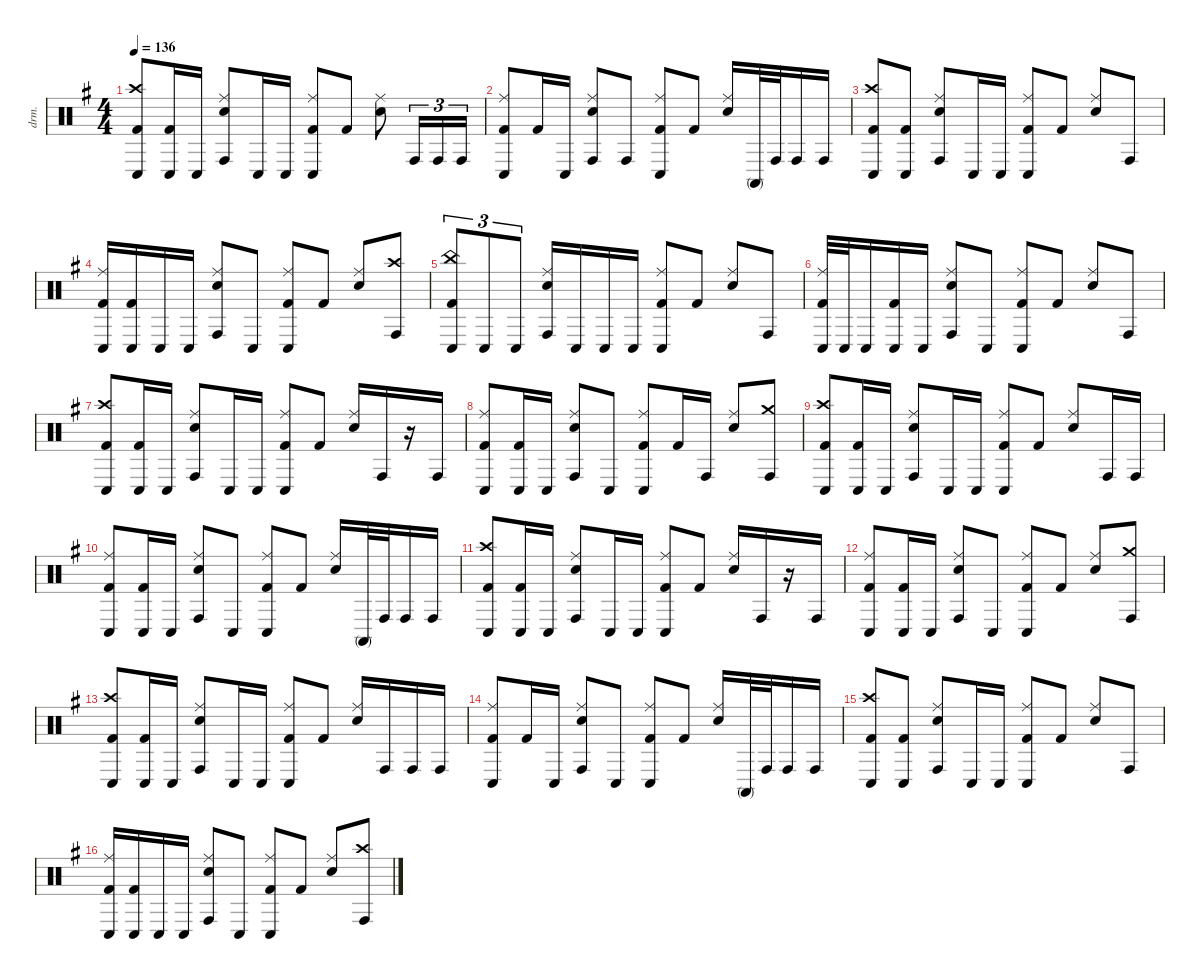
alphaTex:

\defaultSystemsLayout 4
\hideDynamics
\bracketExtendMode nobrackets
\otherSystemsTrackNameOrientation horizontal
\track ("Batterie" "drm.") {instrument percussion}
\staff {score}
\articulation defaults
\ts (4 4)
\tempo 136
\clef neutral
\ks g
("Crash high (hit)"{acc forcenatural} "Conga low (hit)"{acc forcenatural} "Kick (hit) 2"{acc forcenatural}).8{dy f beam Up} ("Conga low (hit)"{acc forcenatural} "Kick (hit) 2"{acc forcenatural}).16{beam Up} "Conga low (hit)"{acc forcenatural}.16{beam Up} ("Ride (middle)"{acc forcenatural} "Conga high (hit)"{acc forcenatural} "Snare (hit) 2"{acc forcenatural}).8{beam Up} "Conga low (hit)"{acc forcenatural}.16{beam Up} "Conga low (hit)"{acc forcenatural}.16{beam Up} ("Ride (middle)"{acc forcenatural} "Conga low (hit)"{acc forcenatural} "Kick (hit) 2"{acc forcenatural}).8{beam Up} "Kick (hit) 2"{acc forcenatural}.8{beam Up} ("Ride (middle)"{acc forcenatural} "Snare (hit) 2"{acc forcenatural}).8{beam Down} "Conga high (hit)"{acc forcenatural}.16{tu (3 2) beam Up} "Conga high (hit)"{acc forcenatural}.16{tu (3 2) beam Up} "Conga high (hit)"{acc forcenatural}.16{tu (3 2) beam Up} |
("Ride (middle)"{acc forcenatural} "Conga low (hit)"{acc forcenatural} "Kick (hit) 2"{acc forcenatural}).8{beam Up} "Kick (hit) 2"{acc forcenatural}.16{beam Up} "Conga low (hit)"{acc forcenatural}.16{beam Up} ("Ride (middle)"{acc forcenatural} "Conga high (hit)"{acc forcenatural} "Snare (hit) 2"{acc forcenatural}).8{beam Up} "Conga high (hit)"{acc forcenatural}.8{beam Up} ("Ride (middle)"{acc forcenatural} "Conga low (hit)"{acc forcenatural} "Kick (hit) 2"{acc forcenatural}).8{beam Up} "Kick (hit) 2"{acc forcenatural}.8{beam Up} ("Ride (middle)"{acc forcenatural} "Snare (hit) 2"{acc forcenatural}).16{beam Up} "Conga high (mute)"{acc forcenatural}.32{beam Up} "Conga high (hit)"{acc forcenatural}.32{beam Up} "Conga high (hit)"{acc forcenatural}.16{beam Up} "Conga high (hit)"{acc forcenatural}.16{beam Up} |
("Crash high (hit)"{acc forcenatural} "Conga low (hit)"{acc forcenatural} "Kick (hit) 2"{acc forcenatural}).8{beam Up} ("Conga low (hit)"{acc forcenatural} "Kick (hit) 2"{acc forcenatural}).8{beam Up} ("Ride (middle)"{acc forcenatural} "Conga high (hit)"{acc forcenatural} "Snare (hit) 2"{acc forcenatural}).8{beam Up} "Conga low (hit)"{acc forcenatural}.16{beam Up} "Conga low (hit)"{acc forcenatural}.16{beam Up} ("Ride (middle)"{acc forcenatural} "Conga low (hit)"{acc forcenatural} "Kick (hit) 2"{acc forcenatural}).8{beam Up} "Kick (hit) 2"{acc forcenatural}.8{beam Up} ("Ride (middle)"{acc forcenatural} "Snare (hit) 2"{acc forcenatural}).8{beam Up} "Conga high (hit)"{acc forcenatural}.8{beam Up} |
("Ride (middle)"{acc forcenatural} "Conga low (hit)"{acc forcenatural} "Kick (hit) 2"{acc forcenatural}).16{beam Up} ("Conga low (hit)"{acc forcenatural} "Kick (hit) 2"{acc forcenatural}).16{beam Up} "Conga low (hit)"{acc forcenatural}.16{beam Up} "Conga low (hit)"{acc forcenatural}.16{beam Up} ("Ride (middle)"{acc forcenatural} "Conga high (hit)"{acc forcenatural} "Snare (hit) 2"{acc forcenatural}).8{beam Up} "Conga low (hit)"{acc forcenatural}.8{beam Up} ("Ride (middle)"{acc forcenatural} "Conga low (hit)"{acc forcenatural} "Kick (hit) 2"{acc forcenatural}).8{beam Up} "Kick (hit) 2"{acc forcenatural}.8{beam Up} ("Ride (middle)"{acc forcenatural} "Snare (hit) 2"{acc forcenatural}).8{beam Up} ("Crash high (hit)"{acc forcenatural} "Conga high (hit)"{acc forcenatural}).8{beam Up} |
("China (hit)"{acc forcenatural} "Conga low (hit)"{acc forcenatural} "Kick (hit) 2"{acc forcenatural}).8{tu (3 2) beam Up} "Conga low (hit)"{acc forcenatural}.8{tu (3 2) beam Up} "Conga low (hit)"{acc forcenatural}.8{tu (3 2) beam Up} ("Ride (middle)"{acc forcenatural} "Conga high (hit)"{acc forcenatural} "Snare (hit) 2"{acc forcenatural}).16{beam Up} "Conga low (hit)"{acc forcenatural}.16{beam Up} "Conga low (hit)"{acc forcenatural}.16{beam Up} "Conga low (hit)"{acc forcenatural}.16{beam Up} ("Ride (middle)"{acc forcenatural} "Conga low (hit)"{acc forcenatural} "Kick (hit) 2"{acc forcenatural}).8{beam Up} "Kick (hit) 2"{acc forcenatural}.8{beam Up} ("Ride (middle)"{acc forcenatural} "Snare (hit) 2"{acc forcenatural}).8{beam Up} "Conga high (hit)"{acc forcenatural}.8{beam Up} |
("Ride (middle)"{acc forcenatural} "Conga low (hit)"{acc forcenatural} "Kick (hit) 2"{acc forcenatural}).32{beam Up} "Conga low (hit)"{acc forcenatural}.32{beam Up} "Conga low (hit)"{acc forcenatural}.16{beam Up} ("Conga low (hit)"{acc forcenatural} "Kick (hit) 2"{acc forcenatural}).16{beam Up} "Conga low (hit)"{acc forcenatural}.16{beam Up} ("Ride (middle)"{acc forcenatural} "Conga high (hit)"{acc forcenatural} "Snare (hit) 2"{acc forcenatural}).8{beam Up} "Conga low (hit)"{acc forcenatural}.8{beam Up} ("Ride (middle)"{acc forcenatural} "Conga low (hit)"{acc forcenatural} "Kick (hit) 2"{acc forcenatural}).8{beam Up} "Kick (hit) 2"{acc forcenatural}.8{beam Up} ("Ride (middle)"{acc forcenatural} "Snare (hit) 2"{acc forcenatural}).8{beam Up} "Conga high (hit)"{acc forcenatural}.8{beam Up} |
("Crash high (hit)"{acc forcenatural} "Conga low (hit)"{acc forcenatural} "Kick (hit) 2"{acc forcenatural}).8{beam Up} ("Conga low (hit)"{acc forcenatural} "Kick (hit) 2"{acc forcenatural}).16{beam Up} "Conga low (hit)"{acc forcenatural}.16{beam Up} ("Ride (middle)"{acc forcenatural} "Conga high (hit)"{acc forcenatural} "Snare (hit) 2"{acc forcenatural}).8{beam Up} "Conga low (hit)"{acc forcenatural}.16{beam Up} "Conga low (hit)"{acc forcenatural}.16{beam Up} ("Ride (middle)"{acc forcenatural} "Conga low (hit)"{acc forcenatural} "Kick (hit) 2"{acc forcenatural}).8{beam Up} "Kick (hit) 2"{acc forcenatural}.8{beam Up} ("Ride (middle)"{acc forcenatural} "Snare (hit) 2"{acc forcenatural}).16{beam Up} "Conga high (hit)"{acc forcenatural}.16{beam Up} r.16{beam Up} "Conga high (hit)"{acc forcenatural}.16{beam Up} |
("Ride (middle)"{acc forcenatural} "Conga low (hit)"{acc forcenatural} "Kick (hit) 2"{acc forcenatural}).8{beam Up} ("Conga low (hit)"{acc forcenatural} "Kick (hit) 2"{acc forcenatural}).16{beam Up} "Conga low (hit)"{acc forcenatural}.16{beam Up} ("Ride (middle)"{acc forcenatural} "Conga high (hit)"{acc forcenatural} "Snare (hit) 2"{acc forcenatural}).8{beam Up} "Conga low (hit)"{acc forcenatural}.8{beam Up} ("Ride (middle)"{acc forcenatural} "Conga low (hit)"{acc forcenatural} "Kick (hit) 2"{acc forcenatural}).8{beam Up} "Kick (hit) 2"{acc forcenatural}.16{beam Up} "Conga high (hit)"{acc forcenatural}.16{beam Up} ("Ride (middle)"{acc forcenatural} "Snare (hit) 2"{acc forcenatural}).8{beam Up} ("Crash medium (hit)"{acc forcenatural} "Conga high (hit)"{acc forcenatural}).8{beam Up} |
("Crash high (hit)"{acc forcenatural} "Conga low (hit)"{acc forcenatural} "Kick (hit) 2"{acc forcenatural}).8{beam Up} ("Conga low (hit)"{acc forcenatural} "Kick (hit) 2"{acc forcenatural}).16{beam Up} "Conga low (hit)"{acc forcenatural}.16{beam Up} ("Ride (middle)"{acc forcenatural} "Conga high (hit)"{acc forcenatural} "Snare (hit) 2"{acc forcenatural}).8{beam Up} "Conga low (hit)"{acc forcenatural}.16{beam Up} "Conga low (hit)"{acc forcenatural}.16{beam Up} ("Ride (middle)"{acc forcenatural} "Conga low (hit)"{acc forcenatural} "Kick (hit) 2"{acc forcenatural}).8{beam Up} "Kick (hit) 2"{acc forcenatural}.8{beam Up} ("Ride (middle)"{acc forcenatural} "Snare (hit) 2"{acc forcenatural}).8{beam Up} "Conga high (hit)"{acc forcenatural}.16{beam Up} "Conga high (hit)"{acc forcenatural}.16{beam Up} |
("Ride (middle)"{acc forcenatural} "Conga low (hit)"{acc forcenatural} "Kick (hit) 2"{acc forcenatural}).8{beam Up} ("Conga low (hit)"{acc forcenatural} "Kick (hit) 2"{acc forcenatural}).16{beam Up} "Conga low (hit)"{acc forcenatural}.16{beam Up} ("Ride (middle)"{acc forcenatural} "Conga high (hit)"{acc forcenatural} "Snare (hit) 2"{acc forcenatural}).8{beam Up} "Conga low (hit)"{acc forcenatural}.8{beam Up} ("Ride (middle)"{acc forcenatural} "Conga low (hit)"{acc forcenatural} "Kick (hit) 2"{acc forcenatural}).8{beam Up} "Kick (hit) 2"{acc forcenatural}.8{beam Up} ("Ride (middle)"{acc forcenatural} "Snare (hit) 2"{acc forcenatural}).16{beam Up} "Conga high (mute)"{acc forcenatural}.32{beam Up} "Conga high (hit)"{acc forcenatural}.32{beam Up} "Conga high (hit)"{acc forcenatural}.16{beam Up} "Conga high (hit)"{acc forcenatural}.16{beam Up} |
("Crash high (hit)"{acc forcenatural} "Conga low (hit)"{acc forcenatural} "Kick (hit) 2"{acc forcenatural}).8{beam Up} ("Conga low (hit)"{acc forcenatural} "Kick (hit) 2"{acc forcenatural}).16{beam Up} "Conga low (hit)"{acc forcenatural}.16{beam Up} ("Ride (middle)"{acc forcenatural} "Conga high (hit)"{acc forcenatural} "Snare (hit) 2"{acc forcenatural}).8{beam Up} "Conga low (hit)"{acc forcenatural}.16{beam Up} "Conga low (hit)"{acc forcenatural}.16{beam Up} ("Ride (middle)"{acc forcenatural} "Conga low (hit)"{acc forcenatural} "Kick (hit) 2"{acc forcenatural}).8{beam Up} "Kick (hit) 2"{acc forcenatural}.8{beam Up} ("Ride (middle)"{acc forcenatural} "Snare (hit) 2"{acc forcenatural}).16{beam Up} "Conga high (hit)"{acc forcenatural}.16{beam Up} r.16{beam Up} "Conga high (hit)"{acc forcenatural}.16{beam Up} |
("Ride (middle)"{acc forcenatural} "Conga low (hit)"{acc forcenatural} "Kick (hit) 2"{acc forcenatural}).8{beam Up} ("Conga low (hit)"{acc forcenatural} "Kick (hit) 2"{acc forcenatural}).16{beam Up} "Conga low (hit)"{acc forcenatural}.16{beam Up} ("Ride (middle)"{acc forcenatural} "Conga high (hit)"{acc forcenatural} "Snare (hit) 2"{acc forcenatural}).8{beam Up} "Conga low (hit)"{acc forcenatural}.8{beam Up} ("Ride (middle)"{acc forcenatural} "Conga low (hit)"{acc forcenatural} "Kick (hit) 2"{acc forcenatural}).8{beam Up} "Kick (hit) 2"{acc forcenatural}.8{beam Up} ("Ride (middle)"{acc forcenatural} "Snare (hit) 2"{acc forcenatural}).8{beam Up} ("Crash medium (hit)"{acc forcenatural} "Conga high (hit)"{acc forcenatural}).8{beam Up} |
("Crash high (hit)"{acc forcenatural} "Conga low (hit)"{acc forcenatural} "Kick (hit) 2"{acc forcenatural}).8{beam Up} ("Conga low (hit)"{acc forcenatural} "Kick (hit) 2"{acc forcenatural}).16{beam Up} "Conga low (hit)"{acc forcenatural}.16{beam Up} ("Ride (middle)"{acc forcenatural} "Conga high (hit)"{acc forcenatural} "Snare (hit) 2"{acc forcenatural}).8{beam Up} "Conga low (hit)"{acc forcenatural}.16{beam Up} "Conga low (hit)"{acc forcenatural}.16{beam Up} ("Ride (middle)"{acc forcenatural} "Conga low (hit)"{acc forcenatural} "Kick (hit) 2"{acc forcenatural}).8{beam Up} "Kick (hit) 2"{acc forcenatural}.8{beam Up} ("Ride (middle)"{acc forcenatural} "Snare (hit) 2"{acc forcenatural}).16{beam Up} "Conga high (hit)"{acc forcenatural}.16{beam Up} "Conga high (hit)"{acc forcenatural}.16{beam Up} "Conga high (hit)"{acc forcenatural}.16{beam Up} |
("Ride (middle)"{acc forcenatural} "Conga low (hit)"{acc forcenatural} "Kick (hit) 2"{acc forcenatural}).8{beam Up} "Kick (hit) 2"{acc forcenatural}.16{beam Up} "Conga low (hit)"{acc forcenatural}.16{beam Up} ("Ride (middle)"{acc forcenatural} "Conga high (hit)"{acc forcenatural} "Snare (hit) 2"{acc forcenatural}).8{beam Up} "Conga low (hit)"{acc forcenatural}.8{beam Up} ("Ride (middle)"{acc forcenatural} "Conga low (hit)"{acc forcenatural} "Kick (hit) 2"{acc forcenatural}).8{beam Up} "Kick (hit) 2"{acc forcenatural}.8{beam Up} ("Ride (middle)"{acc forcenatural} "Snare (hit) 2"{acc forcenatural}).16{beam Up} "Conga high (mute)"{acc forcenatural}.32{beam Up} "Conga high (hit)"{acc forcenatural}.32{beam Up} "Conga high (hit)"{acc forcenatural}.16{beam Up} "Conga high (hit)"{acc forcenatural}.16{beam Up} |
("Crash high (hit)"{acc forcenatural} "Conga low (hit)"{acc forcenatural} "Kick (hit) 2"{acc forcenatural}).8{beam Up} ("Conga low (hit)"{acc forcenatural} "Kick (hit) 2"{acc forcenatural}).8{beam Up} ("Ride (middle)"{acc forcenatural} "Conga high (hit)"{acc forcenatural} "Snare (hit) 2"{acc forcenatural}).8{beam Up} "Conga low (hit)"{acc forcenatural}.16{beam Up} "Conga low (hit)"{acc forcenatural}.16{beam Up} ("Ride (middle)"{acc forcenatural} "Conga low (hit)"{acc forcenatural} "Kick (hit) 2"{acc forcenatural}).8{beam Up} "Kick (hit) 2"{acc forcenatural}.8{beam Up} ("Ride (middle)"{acc forcenatural} "Snare (hit) 2"{acc forcenatural}).8{beam Up} "Conga high (hit)"{acc forcenatural}.8{beam Up} |
("Ride (middle)"{acc forcenatural} "Conga low (hit)"{acc forcenatural} "Kick (hit) 2"{acc forcenatural}).16{beam Up} ("Conga low (hit)"{acc forcenatural} "Kick (hit) 2"{acc forcenatural}).16{beam Up} "Conga low (hit)"{acc forcenatural}.16{beam Up} "Conga low (hit)"{acc forcenatural}.16{beam Up} ("Ride (middle)"{acc forcenatural} "Conga high (hit)"{acc forcenatural} "Snare (hit) 2"{acc forcenatural}).8{beam Up} "Conga low (hit)"{acc forcenatural}.8{beam Up} ("Ride (middle)"{acc forcenatural} "Conga low (hit)"{acc forcenatural} "Kick (hit) 2"{acc forcenatural}).8{beam Up} "Kick (hit) 2"{acc forcenatural}.8{beam Up} ("Ride (middle)"{acc forcenatural} "Snare (hit) 2"{acc forcenatural}).8{beam Up} ("Crash high (hit)"{acc forcenatural} "Conga high (hit)"{acc forcenatural}).8{beam Up}
